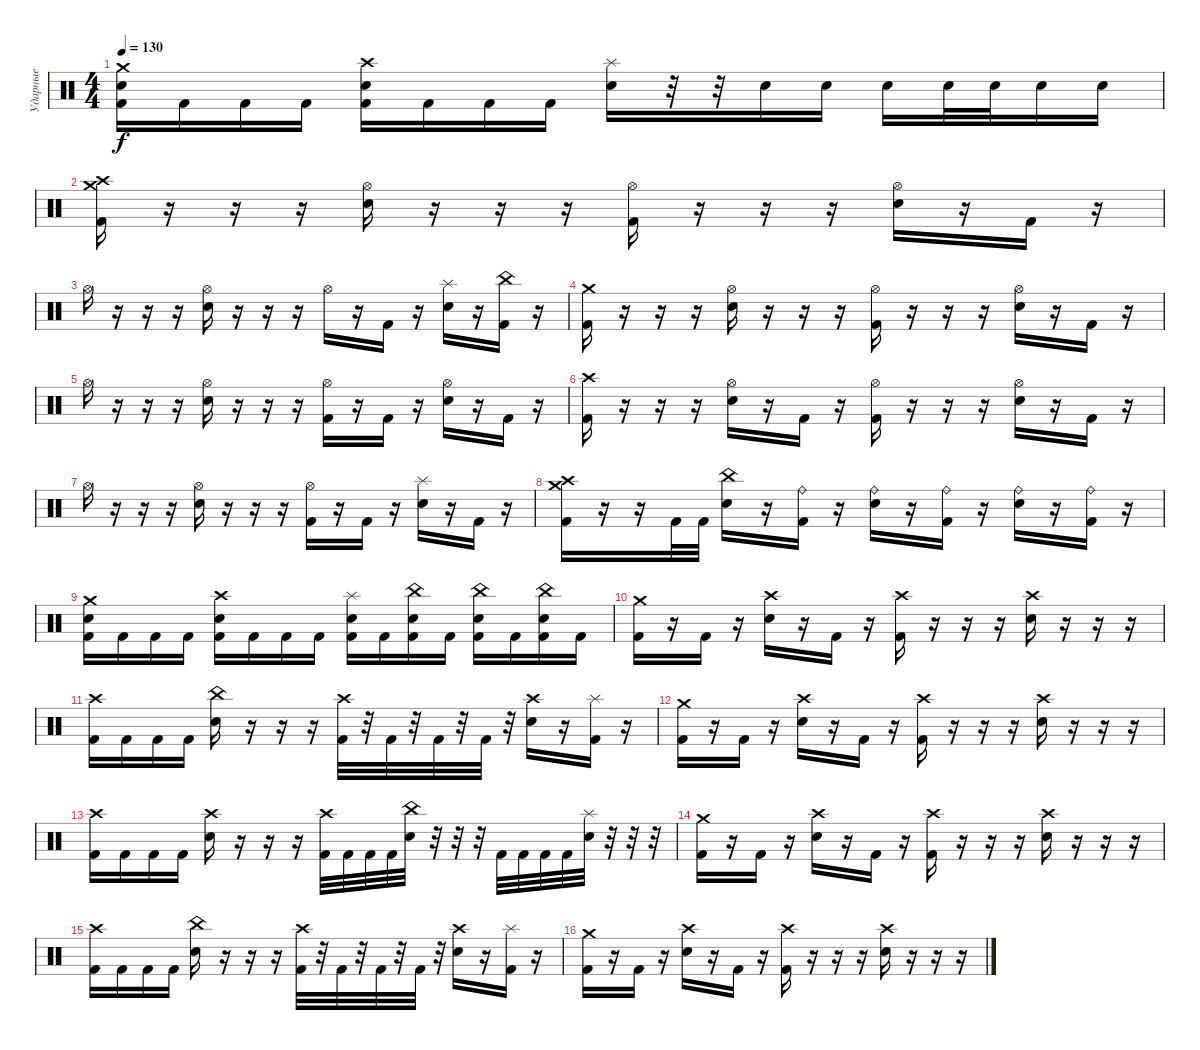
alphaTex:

\track ("Ударные" "Ударные") {instrument percussion}
\staff {score}
\articulation defaults
\ts (4 4)
\tempo 130
\clef neutral
\ks c
("Kick (hit) 2" "Electric Snare (hit)" "Crash medium (hit)").16{dy f} "Kick (hit) 2".16 "Kick (hit) 2".16 "Kick (hit) 2".16 ("Kick (hit) 2" "Electric Snare (hit)" "Crash high (hit)").16 "Kick (hit) 2".16 "Kick (hit) 2".16 "Kick (hit) 2".16 ("Electric Snare (hit)" "Splash (hit)").16 r.32 r.32 "Electric Snare (hit)".16 "Electric Snare (hit)".16 "Electric Snare (hit)".16 "Electric Snare (hit)".32 "Electric Snare (hit)".32 "Electric Snare (hit)".16 "Electric Snare (hit)".16 |
("Kick (hit) 2" "Crash high (hit)" "Crash medium (hit)").16 r.16 r.16 r.16 ("Electric Snare (hit)" "Hi-Hat (open)").16 r.16 r.16 r.16 ("Kick (hit) 2" "Hi-Hat (open)").16 r.16 r.16 r.16 ("Electric Snare (hit)" "Hi-Hat (open)").16 r.16 "Kick (hit) 2".16 r.16 |
"Hi-Hat (open)".16 r.16 r.16 r.16 ("Electric Snare (hit)" "Hi-Hat (open)").16 r.16 r.16 r.16 "Hi-Hat (open)".16 r.16 "Kick (hit) 2".16 r.16 ("Electric Snare (hit)" "Splash (hit)").16 r.16 ("Kick (hit) 2" "China (hit)").16 r.16 |
("Kick (hit) 2" "Crash medium (hit)").16 r.16 r.16 r.16 ("Electric Snare (hit)" "Hi-Hat (open)").16 r.16 r.16 r.16 ("Kick (hit) 2" "Hi-Hat (open)").16 r.16 r.16 r.16 ("Electric Snare (hit)" "Hi-Hat (open)").16 r.16 "Kick (hit) 2".16 r.16 |
"Hi-Hat (open)".16 r.16 r.16 r.16 ("Electric Snare (hit)" "Hi-Hat (open)").16 r.16 r.16 r.16 ("Kick (hit) 2" "Hi-Hat (open)").16 r.16 "Kick (hit) 2".16 r.16 ("Electric Snare (hit)" "Hi-Hat (open)").16 r.16 "Kick (hit) 2".16 r.16 |
("Kick (hit) 2" "Crash high (hit)").16 r.16 r.16 r.16 ("Electric Snare (hit)" "Hi-Hat (open)").16 r.16 "Kick (hit) 2".16 r.16 ("Kick (hit) 2" "Hi-Hat (open)").16 r.16 r.16 r.16 ("Electric Snare (hit)" "Hi-Hat (open)").16 r.16 "Kick (hit) 2".16 r.16 |
"Hi-Hat (open)".16 r.16 r.16 r.16 ("Electric Snare (hit)" "Hi-Hat (open)").16 r.16 r.16 r.16 ("Kick (hit) 2" "Hi-Hat (open)").16 r.16 "Kick (hit) 2".16 r.16 ("Electric Snare (hit)" "Splash (hit)").16 r.16 "Kick (hit) 2".16 r.16 |
("Kick (hit) 2" "Crash high (hit)" "Crash medium (hit)").16 r.16 r.16 "Kick (hit) 2".32 "Kick (hit) 2".32 ("Electric Snare (hit)" "China (hit)").16 r.16 ("Kick (hit) 2" "Ride (bell)").16 r.16 ("Electric Snare (hit)" "Ride (bell)").16 r.16 ("Kick (hit) 2" "Ride (bell)").16 r.16 ("Electric Snare (hit)" "Ride (bell)").16 r.16 ("Kick (hit) 2" "Ride (bell)").16 r.16 |
("Kick (hit) 2" "Electric Snare (hit)" "Crash medium (hit)").16 "Kick (hit) 2".16 "Kick (hit) 2".16 "Kick (hit) 2".16 ("Kick (hit) 2" "Electric Snare (hit)" "Crash high (hit)").16 "Kick (hit) 2".16 "Kick (hit) 2".16 "Kick (hit) 2".16 ("Kick (hit) 2" "Electric Snare (hit)" "Splash (hit)").16 "Kick (hit) 2".16 ("Kick (hit) 2" "Electric Snare (hit)" "China (hit)").16 "Kick (hit) 2".16 ("Kick (hit) 2" "Electric Snare (hit)" "China (hit)").16 "Kick (hit) 2".16 ("Kick (hit) 2" "Electric Snare (hit)" "China (hit)").16 "Kick (hit) 2".16 |
("Kick (hit) 2" "Crash medium (hit)").16 r.16 "Kick (hit) 2".16 r.16 ("Electric Snare (hit)" "Crash high (hit)").16 r.16 "Kick (hit) 2".16 r.16 ("Kick (hit) 2" "Crash high (hit)").16 r.16 r.16 r.16 ("Electric Snare (hit)" "Crash high (hit)").16 r.16 r.16 r.16 |
("Kick (hit) 2" "Crash high (hit)").16 "Kick (hit) 2".16 "Kick (hit) 2".16 "Kick (hit) 2".16 ("Electric Snare (hit)" "China (hit)").16 r.16 r.16 r.16 ("Kick (hit) 2" "Crash high (hit)").32 r.32 "Kick (hit) 2".32 r.32 "Kick (hit) 2".32 r.32 "Kick (hit) 2".32 r.32 ("Electric Snare (hit)" "Crash high (hit)").16 r.16 ("Kick (hit) 2" "Splash (hit)").16 r.16 |
("Kick (hit) 2" "Crash medium (hit)").16 r.16 "Kick (hit) 2".16 r.16 ("Electric Snare (hit)" "Crash high (hit)").16 r.16 "Kick (hit) 2".16 r.16 ("Kick (hit) 2" "Crash high (hit)").16 r.16 r.16 r.16 ("Electric Snare (hit)" "Crash high (hit)").16 r.16 r.16 r.16 |
("Kick (hit) 2" "Crash high (hit)").16 "Kick (hit) 2".16 "Kick (hit) 2".16 "Kick (hit) 2".16 ("Electric Snare (hit)" "Crash high (hit)").16 r.16 r.16 r.16 ("Kick (hit) 2" "Crash high (hit)").32 "Kick (hit) 2".32 "Kick (hit) 2".32 "Kick (hit) 2".32 ("Electric Snare (hit)" "China (hit)").32 r.32 r.32 r.32 "Kick (hit) 2".32 "Kick (hit) 2".32 "Kick (hit) 2".32 "Kick (hit) 2".32 ("Electric Snare (hit)" "Splash (hit)").32 r.32 r.32 r.32 |
("Kick (hit) 2" "Crash medium (hit)").16 r.16 "Kick (hit) 2".16 r.16 ("Electric Snare (hit)" "Crash high (hit)").16 r.16 "Kick (hit) 2".16 r.16 ("Kick (hit) 2" "Crash high (hit)").16 r.16 r.16 r.16 ("Electric Snare (hit)" "Crash high (hit)").16 r.16 r.16 r.16 |
("Kick (hit) 2" "Crash high (hit)").16 "Kick (hit) 2".16 "Kick (hit) 2".16 "Kick (hit) 2".16 ("Electric Snare (hit)" "China (hit)").16 r.16 r.16 r.16 ("Kick (hit) 2" "Crash high (hit)").32 r.32 "Kick (hit) 2".32 r.32 "Kick (hit) 2".32 r.32 "Kick (hit) 2".32 r.32 ("Electric Snare (hit)" "Crash high (hit)").16 r.16 ("Kick (hit) 2" "Splash (hit)").16 r.16 |
("Kick (hit) 2" "Crash medium (hit)").16 r.16 "Kick (hit) 2".16 r.16 ("Electric Snare (hit)" "Crash high (hit)").16 r.16 "Kick (hit) 2".16 r.16 ("Kick (hit) 2" "Crash high (hit)").16 r.16 r.16 r.16 ("Electric Snare (hit)" "Crash high (hit)").16 r.16 r.16 r.16
